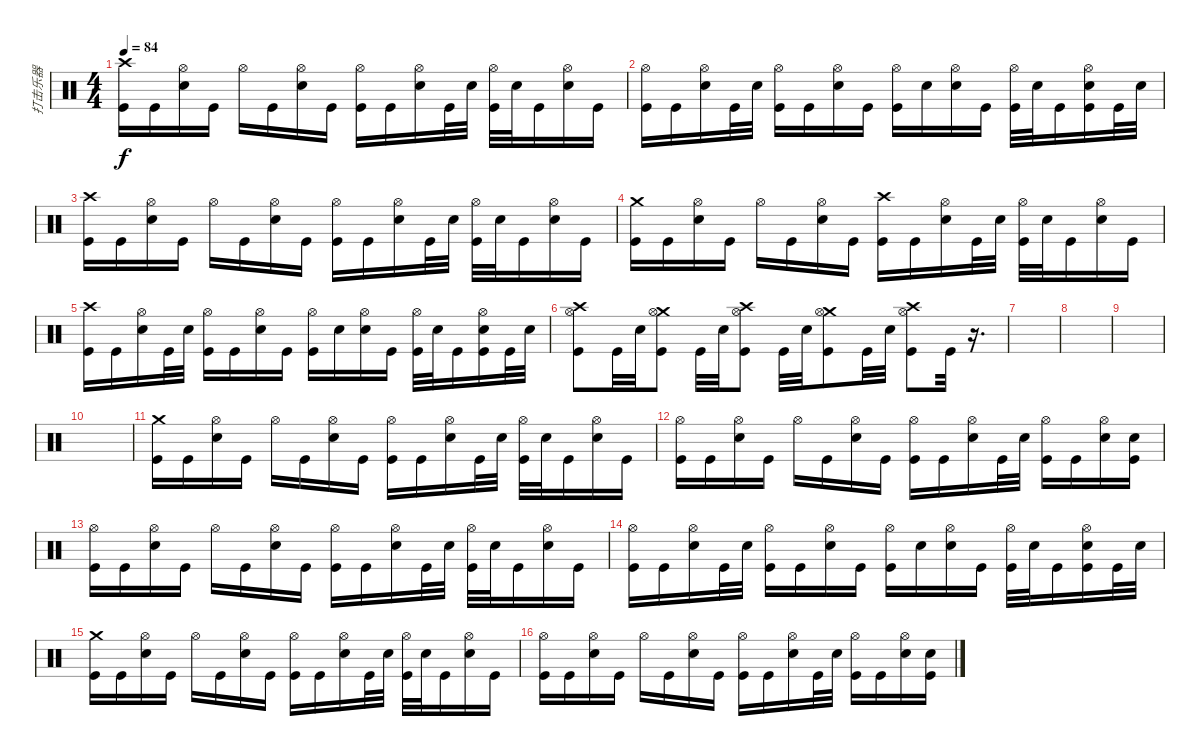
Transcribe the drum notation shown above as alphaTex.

\track ("打击乐器" "打击乐器") {instrument percussion}
\staff {score}
\articulation defaults
\ts (4 4)
\tempo 84
\clef neutral
\ks c
("Crash high (hit)" "Kick (hit)").16{dy f} "Kick (hit)".16 ("Hi-Hat (open)" "Electric Snare (hit)").16 "Kick (hit)".16 "Hi-Hat (open)".16 "Kick (hit)".16 ("Hi-Hat (open)" "Electric Snare (hit)").16 "Kick (hit)".16 ("Hi-Hat (open)" "Kick (hit)").16 "Kick (hit)".16 ("Hi-Hat (open)" "Electric Snare (hit)").16 "Kick (hit)".32 "Electric Snare (hit)".32 ("Hi-Hat (open)" "Kick (hit)").32 "Electric Snare (hit)".32 "Kick (hit)".16 ("Hi-Hat (open)" "Electric Snare (hit)").16 "Kick (hit)".16 |
("Hi-Hat (open)" "Kick (hit)").16 "Kick (hit)".16 ("Hi-Hat (open)" "Electric Snare (hit)").16 "Kick (hit)".32 "Electric Snare (hit)".32 ("Hi-Hat (open)" "Kick (hit)").16 "Kick (hit)".16 ("Hi-Hat (open)" "Electric Snare (hit)").16 "Kick (hit)".16 ("Hi-Hat (open)" "Kick (hit)").16 "Electric Snare (hit)".16 ("Hi-Hat (open)" "Electric Snare (hit)").16 "Kick (hit)".16 ("Hi-Hat (open)" "Kick (hit)").32 "Electric Snare (hit)".32 "Kick (hit)".16 ("Hi-Hat (open)" "Electric Snare (hit)" "Kick (hit)").16 "Kick (hit)".32 "Electric Snare (hit)".32 |
("Crash high (hit)" "Kick (hit)").16 "Kick (hit)".16 ("Hi-Hat (open)" "Electric Snare (hit)").16 "Kick (hit)".16 "Hi-Hat (open)".16 "Kick (hit)".16 ("Hi-Hat (open)" "Electric Snare (hit)").16 "Kick (hit)".16 ("Hi-Hat (open)" "Kick (hit)").16 "Kick (hit)".16 ("Hi-Hat (open)" "Electric Snare (hit)").16 "Kick (hit)".32 "Electric Snare (hit)".32 ("Hi-Hat (open)" "Kick (hit)").32 "Electric Snare (hit)".32 "Kick (hit)".16 ("Hi-Hat (open)" "Electric Snare (hit)").16 "Kick (hit)".16 |
("Crash medium (hit)" "Kick (hit)").16 "Kick (hit)".16 ("Hi-Hat (open)" "Electric Snare (hit)").16 "Kick (hit)".16 "Hi-Hat (open)".16 "Kick (hit)".16 ("Hi-Hat (open)" "Electric Snare (hit)").16 "Kick (hit)".16 ("Crash high (hit)" "Kick (hit)").16 "Kick (hit)".16 ("Hi-Hat (open)" "Electric Snare (hit)").16 "Kick (hit)".32 "Electric Snare (hit)".32 ("Hi-Hat (open)" "Kick (hit)").32 "Electric Snare (hit)".32 "Kick (hit)".16 ("Hi-Hat (open)" "Electric Snare (hit)").16 "Kick (hit)".16 |
("Crash high (hit)" "Kick (hit)").16 "Kick (hit)".16 ("Hi-Hat (open)" "Electric Snare (hit)").16 "Kick (hit)".32 "Electric Snare (hit)".32 ("Hi-Hat (open)" "Kick (hit)").16 "Kick (hit)".16 ("Hi-Hat (open)" "Electric Snare (hit)").16 "Kick (hit)".16 ("Hi-Hat (open)" "Kick (hit)").16 "Electric Snare (hit)".16 ("Hi-Hat (open)" "Electric Snare (hit)").16 "Kick (hit)".16 ("Hi-Hat (open)" "Kick (hit)").32 "Electric Snare (hit)".32 "Kick (hit)".16 ("Hi-Hat (open)" "Electric Snare (hit)" "Kick (hit)").16 "Kick (hit)".32 "Electric Snare (hit)".32 |
("Crash high (hit)" "Hi-Hat (open)" "Kick (hit)").8 "Kick (hit)".32 "Electric Snare (hit)".32 ("Crash medium (hit)" "Hi-Hat (open)" "Kick (hit)").8 "Kick (hit)".32 "Electric Snare (hit)".32 ("Crash high (hit)" "Hi-Hat (open)" "Kick (hit)").8 "Kick (hit)".32 "Electric Snare (hit)".32 ("Crash medium (hit)" "Hi-Hat (open)" "Kick (hit)").8 "Kick (hit)".32 "Electric Snare (hit)".32 ("Crash high (hit)" "Hi-Hat (open)" "Kick (hit)").8 "Kick (hit)".32 r.16{d} |
|
|
|
|
("Crash medium (hit)" "Kick (hit)").16 "Kick (hit)".16 ("Hi-Hat (open)" "Electric Snare (hit)").16 "Kick (hit)".16 "Hi-Hat (open)".16 "Kick (hit)".16 ("Hi-Hat (open)" "Electric Snare (hit)").16 "Kick (hit)".16 ("Hi-Hat (open)" "Kick (hit)").16 "Kick (hit)".16 ("Hi-Hat (open)" "Electric Snare (hit)").16 "Kick (hit)".32 "Electric Snare (hit)".32 ("Hi-Hat (open)" "Kick (hit)").32 "Electric Snare (hit)".32 "Kick (hit)".16 ("Hi-Hat (open)" "Electric Snare (hit)").16 "Kick (hit)".16 |
("Hi-Hat (open)" "Kick (hit)").16 "Kick (hit)".16 ("Hi-Hat (open)" "Electric Snare (hit)").16 "Kick (hit)".16 "Hi-Hat (open)".16 "Kick (hit)".16 ("Hi-Hat (open)" "Electric Snare (hit)").16 "Kick (hit)".16 ("Hi-Hat (open)" "Kick (hit)").16 "Kick (hit)".16 ("Hi-Hat (open)" "Electric Snare (hit)").16 "Kick (hit)".32 "Electric Snare (hit)".32 ("Hi-Hat (open)" "Kick (hit)").16 "Kick (hit)".16 ("Hi-Hat (open)" "Electric Snare (hit)").16 ("Electric Snare (hit)" "Kick (hit)").16 |
("Hi-Hat (open)" "Kick (hit)").16 "Kick (hit)".16 ("Hi-Hat (open)" "Electric Snare (hit)").16 "Kick (hit)".16 "Hi-Hat (open)".16 "Kick (hit)".16 ("Hi-Hat (open)" "Electric Snare (hit)").16 "Kick (hit)".16 ("Hi-Hat (open)" "Kick (hit)").16 "Kick (hit)".16 ("Hi-Hat (open)" "Electric Snare (hit)").16 "Kick (hit)".32 "Electric Snare (hit)".32 ("Hi-Hat (open)" "Kick (hit)").32 "Electric Snare (hit)".32 "Kick (hit)".16 ("Hi-Hat (open)" "Electric Snare (hit)").16 "Kick (hit)".16 |
("Hi-Hat (open)" "Kick (hit)").16 "Kick (hit)".16 ("Hi-Hat (open)" "Electric Snare (hit)").16 "Kick (hit)".32 "Electric Snare (hit)".32 ("Hi-Hat (open)" "Kick (hit)").16 "Kick (hit)".16 ("Hi-Hat (open)" "Electric Snare (hit)").16 "Kick (hit)".16 ("Hi-Hat (open)" "Kick (hit)").16 "Electric Snare (hit)".16 ("Hi-Hat (open)" "Electric Snare (hit)").16 "Kick (hit)".16 ("Hi-Hat (open)" "Kick (hit)").32 "Electric Snare (hit)".32 "Kick (hit)".16 ("Hi-Hat (open)" "Electric Snare (hit)" "Kick (hit)").16 "Kick (hit)".32 "Electric Snare (hit)".32 |
("Crash medium (hit)" "Kick (hit)").16 "Kick (hit)".16 ("Hi-Hat (open)" "Electric Snare (hit)").16 "Kick (hit)".16 "Hi-Hat (open)".16 "Kick (hit)".16 ("Hi-Hat (open)" "Electric Snare (hit)").16 "Kick (hit)".16 ("Hi-Hat (open)" "Kick (hit)").16 "Kick (hit)".16 ("Hi-Hat (open)" "Electric Snare (hit)").16 "Kick (hit)".32 "Electric Snare (hit)".32 ("Hi-Hat (open)" "Kick (hit)").32 "Electric Snare (hit)".32 "Kick (hit)".16 ("Hi-Hat (open)" "Electric Snare (hit)").16 "Kick (hit)".16 |
("Hi-Hat (open)" "Kick (hit)").16 "Kick (hit)".16 ("Hi-Hat (open)" "Electric Snare (hit)").16 "Kick (hit)".16 "Hi-Hat (open)".16 "Kick (hit)".16 ("Hi-Hat (open)" "Electric Snare (hit)").16 "Kick (hit)".16 ("Hi-Hat (open)" "Kick (hit)").16 "Kick (hit)".16 ("Hi-Hat (open)" "Electric Snare (hit)").16 "Kick (hit)".32 "Electric Snare (hit)".32 ("Hi-Hat (open)" "Kick (hit)").16 "Kick (hit)".16 ("Hi-Hat (open)" "Electric Snare (hit)").16 ("Electric Snare (hit)" "Kick (hit)").16
